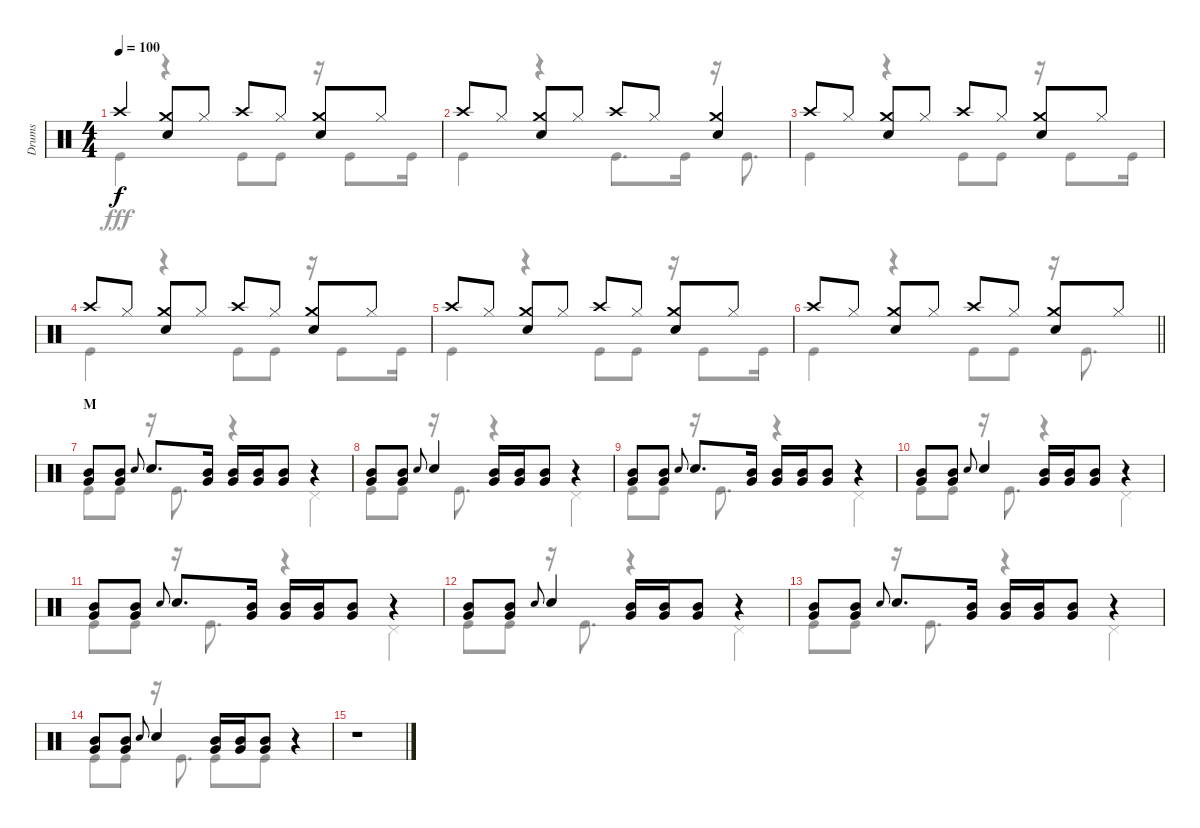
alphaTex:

\track ("Drums" "Drums") {instrument percussion}
\staff {score}
\articulation defaults
\voice
\ts (4 4)
\tempo 100
\clef neutral
\ks c "Crash high (hit)".4{dy f}
("Crash medium (hit)" "Snare (hit) 2").8 "Hi-Hat (closed)".8 "Crash high (hit)".8 "Hi-Hat (closed)".8 ("Crash medium (hit)" "Snare (hit) 2").8 "Hi-Hat (closed)".8 |
"Crash high (hit)".8 "Hi-Hat (closed)".8 ("Crash medium (hit)" "Snare (hit) 2").8 "Hi-Hat (closed)".8 "Crash high (hit)".8 "Hi-Hat (closed)".8 ("Crash medium (hit)" "Snare (hit) 2").4 |
"Crash high (hit)".8 "Hi-Hat (closed)".8 ("Crash medium (hit)" "Snare (hit) 2").8 "Hi-Hat (closed)".8 "Crash high (hit)".8 "Hi-Hat (closed)".8 ("Crash medium (hit)" "Snare (hit) 2").8 "Hi-Hat (closed)".8 |
"Crash high (hit)".8 "Hi-Hat (closed)".8 ("Crash medium (hit)" "Snare (hit) 2").8 "Hi-Hat (closed)".8 "Crash high (hit)".8 "Hi-Hat (closed)".8 ("Crash medium (hit)" "Snare (hit) 2").8 "Hi-Hat (closed)".8 |
"Crash high (hit)".8 "Hi-Hat (closed)".8 ("Crash medium (hit)" "Snare (hit) 2").8 "Hi-Hat (closed)".8 "Crash high (hit)".8 "Hi-Hat (closed)".8 ("Crash medium (hit)" "Snare (hit) 2").8 "Hi-Hat (closed)".8 |
\barLineRight lightlight "Crash high (hit)".8 "Hi-Hat (closed)".8
("Crash medium (hit)" "Snare (hit) 2").8 "Hi-Hat (closed)".8 "Crash high (hit)".8 "Hi-Hat (closed)".8 ("Crash medium (hit)" "Snare (hit) 2").8 "Hi-Hat (closed)".8 |
\section ("" "M")
("Mid Tom (hit)" "Very Low Tom (hit)").8 ("Mid Tom (hit)" "Very Low Tom (hit)").8 "Snare (hit) 2".8{gr onbeat} "Snare (hit) 2".8{d} ("Mid Tom (hit)" "Very Low Tom (hit)").16 ("Mid Tom (hit)" "Very Low Tom (hit)").16 ("Mid Tom (hit)" "Very Low Tom (hit)").16 ("Mid Tom (hit)" "Very Low Tom (hit)").8 r.4 |
("Mid Tom (hit)" "Very Low Tom (hit)").8 ("Mid Tom (hit)" "Very Low Tom (hit)").8 "Snare (hit) 2".8{gr onbeat} "Snare (hit) 2".4 ("Mid Tom (hit)" "Very Low Tom (hit)").16 ("Mid Tom (hit)" "Very Low Tom (hit)").16 ("Mid Tom (hit)" "Very Low Tom (hit)").8 r.4 |
("Mid Tom (hit)" "Very Low Tom (hit)").8 ("Mid Tom (hit)" "Very Low Tom (hit)").8 "Snare (hit) 2".8{gr onbeat} "Snare (hit) 2".8{d} ("Mid Tom (hit)" "Very Low Tom (hit)").16 ("Mid Tom (hit)" "Very Low Tom (hit)").16 ("Mid Tom (hit)" "Very Low Tom (hit)").16 ("Mid Tom (hit)" "Very Low Tom (hit)").8 r.4 |
("Mid Tom (hit)" "Very Low Tom (hit)").8 ("Mid Tom (hit)" "Very Low Tom (hit)").8 "Snare (hit) 2".8{gr onbeat} "Snare (hit) 2".4 ("Mid Tom (hit)" "Very Low Tom (hit)").16 ("Mid Tom (hit)" "Very Low Tom (hit)").16 ("Mid Tom (hit)" "Very Low Tom (hit)").8 r.4 |
("Mid Tom (hit)" "Very Low Tom (hit)").8 ("Mid Tom (hit)" "Very Low Tom (hit)").8 "Snare (hit) 2".8{gr onbeat} "Snare (hit) 2".8{d} ("Mid Tom (hit)" "Very Low Tom (hit)").16 ("Mid Tom (hit)" "Very Low Tom (hit)").16 ("Mid Tom (hit)" "Very Low Tom (hit)").16 ("Mid Tom (hit)" "Very Low Tom (hit)").8 r.4 |
("Mid Tom (hit)" "Very Low Tom (hit)").8 ("Mid Tom (hit)" "Very Low Tom (hit)").8 "Snare (hit) 2".8{gr onbeat} "Snare (hit) 2".4 ("Mid Tom (hit)" "Very Low Tom (hit)").16 ("Mid Tom (hit)" "Very Low Tom (hit)").16 ("Mid Tom (hit)" "Very Low Tom (hit)").8 r.4 |
("Mid Tom (hit)" "Very Low Tom (hit)").8 ("Mid Tom (hit)" "Very Low Tom (hit)").8 "Snare (hit) 2".8{gr onbeat} "Snare (hit) 2".8{d} ("Mid Tom (hit)" "Very Low Tom (hit)").16 ("Mid Tom (hit)" "Very Low Tom (hit)").16 ("Mid Tom (hit)" "Very Low Tom (hit)").16 ("Mid Tom (hit)" "Very Low Tom (hit)").8 r.4 |
("Mid Tom (hit)" "Very Low Tom (hit)").8 ("Mid Tom (hit)" "Very Low Tom (hit)").8 "Snare (hit) 2".8{gr onbeat} "Snare (hit) 2".4 ("Mid Tom (hit)" "Very Low Tom (hit)").16 ("Mid Tom (hit)" "Very Low Tom (hit)").16 ("Mid Tom (hit)" "Very Low Tom (hit)").8 r.4 |
r.1
\voice
\clef neutral
\ottava regular
\simile none
\ks c "Kick (hit)".4{dy fff}
r.4 "Kick (hit)".8 "Kick (hit)".8 r.16 "Kick (hit)".8 "Kick (hit)".16 |
"Kick (hit)".4 r.4 "Kick (hit)".8{d} "Kick (hit)".16 r.16 "Kick (hit)".8{d} |
"Kick (hit)".4 r.4 "Kick (hit)".8 "Kick (hit)".8 r.16 "Kick (hit)".8 "Kick (hit)".16 |
"Kick (hit)".4 r.4 "Kick (hit)".8 "Kick (hit)".8 r.16 "Kick (hit)".8 "Kick (hit)".16 |
"Kick (hit)".4 r.4 "Kick (hit)".8 "Kick (hit)".8 r.16 "Kick (hit)".8 "Kick (hit)".16 |
\barLineRight lightlight "Kick (hit)".4
r.4 "Kick (hit)".8 "Kick (hit)".8 r.16 "Kick (hit)".8{d} |
"Kick (hit)".8 "Kick (hit)".8 r.16 "Kick (hit)".8{d} r.4 "Pedal Hi-Hat (hit)".4 |
"Kick (hit)".8 "Kick (hit)".8 r.16 "Kick (hit)".8{d} r.4 "Pedal Hi-Hat (hit)".4 |
"Kick (hit)".8 "Kick (hit)".8 r.16 "Kick (hit)".8{d} r.4 "Pedal Hi-Hat (hit)".4 |
"Kick (hit)".8 "Kick (hit)".8 r.16 "Kick (hit)".8{d} r.4 "Pedal Hi-Hat (hit)".4 |
"Kick (hit)".8 "Kick (hit)".8 r.16 "Kick (hit)".8{d} r.4 "Pedal Hi-Hat (hit)".4 |
"Kick (hit)".8 "Kick (hit)".8 r.16 "Kick (hit)".8{d} r.4 "Pedal Hi-Hat (hit)".4 |
"Kick (hit)".8 "Kick (hit)".8 r.16 "Kick (hit)".8{d} r.4 "Pedal Hi-Hat (hit)".4 |
"Kick (hit)".8 "Kick (hit)".8 r.16 "Kick (hit)".8{d} "Kick (hit)".8 "Kick (hit)".8 r.4 |
r.1
